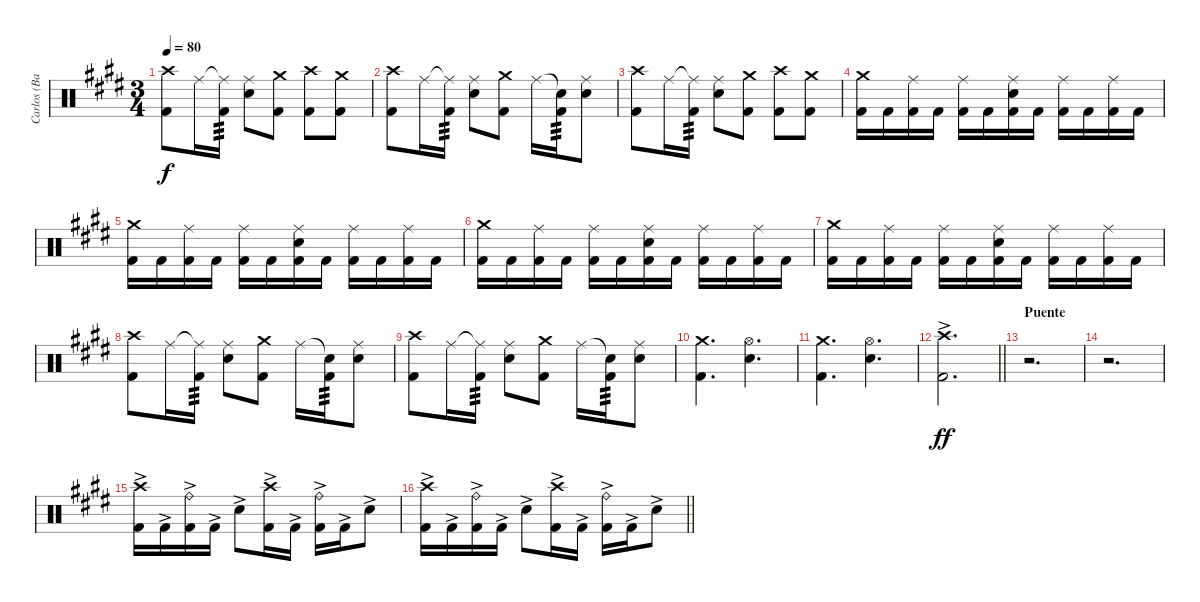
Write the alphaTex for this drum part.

\track ("Carlos (Batería)" "Carlos (Ba") {instrument percussion}
\staff
\articulation defaults
\ts (3 4)
\tempo 80
\clef neutral
\ks c#minor
("Crash high (hit)" "Kick (hit) 2").8{dy f} "Ride (middle)".16 ("Ride (middle)"{t} "Kick (hit) 2").16{tp 3} ("Ride (middle)" "Snare (hit) 2").8 ("Crash medium (hit)" "Kick (hit) 2").8 ("Crash high (hit)" "Kick (hit) 2").8 ("Crash medium (hit)" "Kick (hit) 2").8 |
("Crash high (hit)" "Kick (hit) 2").8 "Ride (middle)".16 ("Ride (middle)"{t} "Kick (hit) 2").16{tp 3} ("Ride (middle)" "Snare (hit) 2").8 ("Crash medium (hit)" "Kick (hit) 2").8 "Ride (middle)".16 ("Snare (hit)"{t} "Kick (hit) 2").16{tp 3} ("Ride (middle)" "Snare (hit) 2").8 |
("Crash high (hit)" "Kick (hit) 2").8 "Ride (middle)".16 ("Ride (middle)"{t} "Kick (hit) 2").16{tp 3} ("Ride (middle)" "Snare (hit) 2").8 ("Crash medium (hit)" "Kick (hit) 2").8 ("Crash high (hit)" "Kick (hit) 2").8 ("Crash medium (hit)" "Kick (hit) 2").8 |
("Crash medium (hit)" "Kick (hit) 2").16 "Kick (hit) 2".16 ("Ride (middle)" "Kick (hit) 2").16 "Kick (hit) 2".16 ("Ride (middle)" "Kick (hit) 2").16 "Kick (hit) 2".16 ("Ride (middle)" "Snare (hit) 2" "Kick (hit) 2").16 "Kick (hit) 2".16 ("Ride (middle)" "Kick (hit) 2").16 "Kick (hit) 2".16 ("Ride (middle)" "Kick (hit) 2").16 "Kick (hit) 2".16 |
("Crash medium (hit)" "Kick (hit) 2").16 "Kick (hit) 2".16 ("Ride (middle)" "Kick (hit) 2").16 "Kick (hit) 2".16 ("Ride (middle)" "Kick (hit) 2").16 "Kick (hit) 2".16 ("Ride (middle)" "Snare (hit) 2" "Kick (hit) 2").16 "Kick (hit) 2".16 ("Ride (middle)" "Kick (hit) 2").16 "Kick (hit) 2".16 ("Ride (middle)" "Kick (hit) 2").16 "Kick (hit) 2".16 |
("Crash medium (hit)" "Kick (hit) 2").16 "Kick (hit) 2".16 ("Ride (middle)" "Kick (hit) 2").16 "Kick (hit) 2".16 ("Ride (middle)" "Kick (hit) 2").16 "Kick (hit) 2".16 ("Ride (middle)" "Snare (hit) 2" "Kick (hit) 2").16 "Kick (hit) 2".16 ("Ride (middle)" "Kick (hit) 2").16 "Kick (hit) 2".16 ("Ride (middle)" "Kick (hit) 2").16 "Kick (hit) 2".16 |
("Crash medium (hit)" "Kick (hit) 2").16 "Kick (hit) 2".16 ("Ride (middle)" "Kick (hit) 2").16 "Kick (hit) 2".16 ("Ride (middle)" "Kick (hit) 2").16 "Kick (hit) 2".16 ("Ride (middle)" "Snare (hit) 2" "Kick (hit) 2").16 "Kick (hit) 2".16 ("Ride (middle)" "Kick (hit) 2").16 "Kick (hit) 2".16 ("Ride (middle)" "Kick (hit) 2").16 "Kick (hit) 2".16 |
("Crash high (hit)" "Kick (hit) 2").8 "Ride (middle)".16 ("Ride (middle)"{t} "Kick (hit) 2").16{tp 3} ("Ride (middle)" "Snare (hit) 2").8 ("Crash medium (hit)" "Kick (hit) 2").8 "Ride (middle)".16 ("Snare (hit)"{t} "Kick (hit) 2").16{tp 3} ("Ride (middle)" "Snare (hit) 2").8 |
("Crash high (hit)" "Kick (hit) 2").8 "Ride (middle)".16 ("Ride (middle)"{t} "Kick (hit) 2").16{tp 3} ("Ride (middle)" "Snare (hit) 2").8 ("Crash medium (hit)" "Kick (hit) 2").8 "Ride (middle)".16 ("Snare (hit)"{t} "Kick (hit) 2").16{tp 3} ("Ride (middle)" "Snare (hit) 2").8 |
("Crash medium (hit)" "Kick (hit) 2").4{d} ("Hi-Hat (open)" "Snare (hit) 2").4{d} |
("Crash medium (hit)" "Kick (hit) 2").4{d} ("Hi-Hat (open)" "Snare (hit) 2").4{d} |
\barLineRight lightlight
("Crash high (hit)" "Kick (hit) 2"{ac}).2{d dy ff} |
\section ("" "Puente")
r.2{d} |
r.2{d} |
("Crash high (hit)" "Kick (hit) 2"{ac}).16{volume 16} "Kick (hit) 2"{ac}.16 ("Ride (bell)" "Kick (hit) 2"{ac}).16 "Kick (hit) 2"{ac}.16 "Snare (hit) 2"{ac}.8 ("Crash high (hit)" "Kick (hit) 2"{ac}).16 "Kick (hit) 2"{ac}.16 ("Ride (bell)" "Kick (hit) 2"{ac}).16 "Kick (hit) 2"{ac}.16 "Snare (hit) 2"{ac}.8 |
\barLineRight lightlight
("Crash high (hit)" "Kick (hit) 2"{ac}).16 "Kick (hit) 2"{ac}.16 ("Ride (bell)" "Kick (hit) 2"{ac}).16 "Kick (hit) 2"{ac}.16 "Snare (hit) 2"{ac}.8 ("Crash high (hit)" "Kick (hit) 2"{ac}).16 "Kick (hit) 2"{ac}.16 ("Ride (bell)" "Kick (hit) 2"{ac}).16 "Kick (hit) 2"{ac}.16 "Snare (hit) 2"{ac}.8
